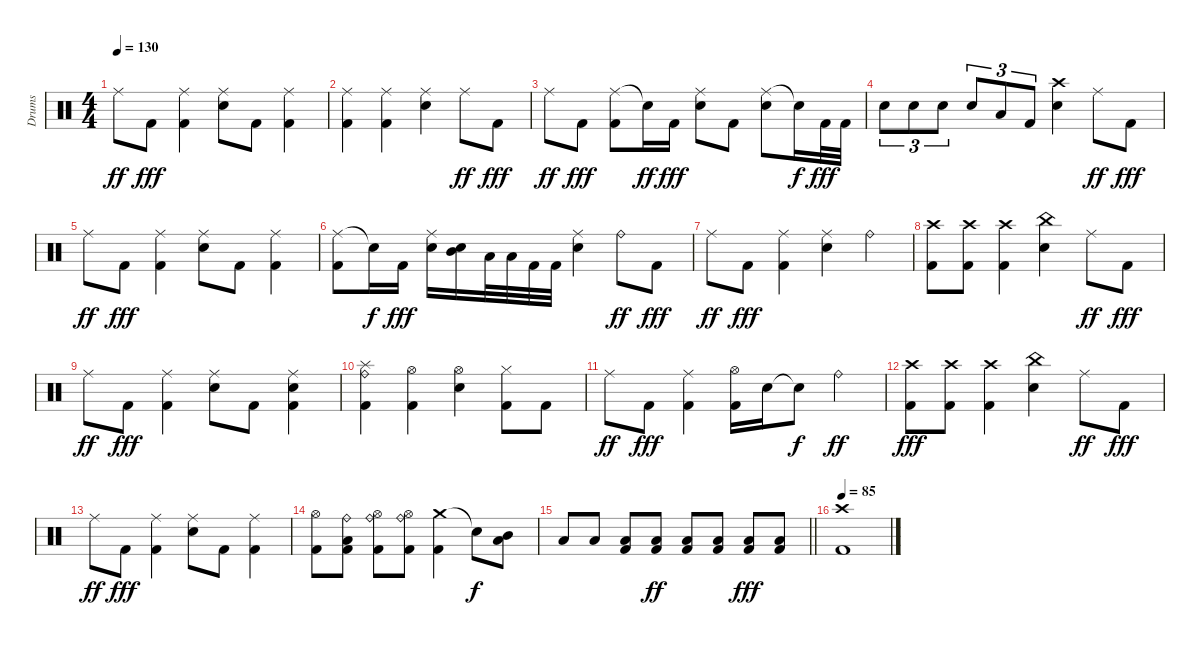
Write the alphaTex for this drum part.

\track ("Drums" "Drums") {instrument percussion}
\staff {score}
\articulation defaults
\ts (4 4)
\tempo 130
\clef neutral
\ks c "Ride (middle)".8{dy ff} "Kick (hit) 2".8{dy fff}
("Ride (middle)" "Kick (hit) 2").4 ("Ride (middle)" "Snare (hit) 2").8 "Kick (hit) 2".8 ("Ride (middle)" "Kick (hit) 2").4 |
("Ride (middle)" "Kick (hit) 2").4 ("Ride (middle)" "Kick (hit) 2").4 ("Ride (middle)" "Snare (hit) 2").4 "Ride (middle)".8{dy ff} "Kick (hit) 2".8{dy fff} |
"Ride (middle)".8{dy ff} "Kick (hit) 2".8{dy fff} ("Ride (middle)" "Kick (hit) 2").8 "Snare (hit)"{t}.16{dy ff} "Kick (hit) 2".16{dy fff} ("Ride (middle)" "Snare (hit) 2").8 "Kick (hit) 2".8 ("Ride (middle)" "Snare (hit) 2").8 "Snare (hit)"{t}.16{dy f} "Kick (hit) 2".32{dy fff} "Kick (hit) 2".32 |
"Snare (hit) 2".8{tu (3 2)} "Snare (hit) 2".8{tu (3 2)} "Snare (hit) 2".8{tu (3 2)} "Snare (hit) 2".8{tu (3 2)} "Low Tom (hit)".8{tu (3 2)} "Kick (hit) 2".8{tu (3 2)} ("Crash high (hit)" "Snare (hit) 2").4 "Ride (middle)".8{dy ff} "Kick (hit) 2".8{dy fff} |
"Ride (middle)".8{dy ff} "Kick (hit) 2".8{dy fff} ("Ride (middle)" "Kick (hit) 2").4 ("Ride (middle)" "Snare (hit) 2").8 "Kick (hit) 2".8 ("Ride (middle)" "Kick (hit) 2").4 |
("Ride (middle)" "Kick (hit) 2").8 "Snare (hit)"{t}.16{dy f} "Kick (hit) 2".16{dy fff} ("Ride (middle)" "Snare (hit) 2").16 ("Snare (hit) 2" "Mid Tom (hit)").16 "Low Tom (hit)".32 "Low Tom (hit)".32 "Kick (hit) 2".32 "Kick (hit) 2".32 ("Ride (middle)" "Snare (hit) 2").4 "Ride (bell)".8{dy ff} "Kick (hit) 2".8{dy fff} |
"Ride (middle)".8{dy ff} "Kick (hit) 2".8{dy fff} ("Ride (middle)" "Kick (hit) 2").4 ("Ride (middle)" "Snare (hit) 2").4 "Ride (bell)".4 |
("Crash high (hit)" "Kick (hit) 2").8 ("Crash high (hit)" "Kick (hit) 2").8 ("Crash high (hit)" "Kick (hit) 2").4 ("China (hit)" "Snare (hit) 2").4 "Ride (middle)".8{dy ff} "Kick (hit) 2".8{dy fff} |
"Ride (middle)".8{dy ff} "Kick (hit) 2".8{dy fff} ("Ride (middle)" "Kick (hit) 2").4 ("Ride (middle)" "Snare (hit) 2").8 "Kick (hit) 2".8 ("Ride (middle)" "Snare (hit) 2" "Kick (hit) 2").4 |
("Ride (bell)" "Splash (hit)" "Kick (hit) 2").4 ("Hi-Hat (open)" "Kick (hit) 2").4 ("Hi-Hat (open)" "Snare (hit) 2").4 ("Hi-Hat (closed)" "Kick (hit) 2").8 "Kick (hit) 2".8 |
"Ride (middle)".8{dy ff} "Kick (hit) 2".8{dy fff} ("Ride (middle)" "Kick (hit) 2").4 ("Hi-Hat (open)" "Kick (hit) 2").16 "Snare (hit) 2".16 "Snare (hit)"{t}.8{dy f} "Ride (bell)".4{dy ff} |
("Crash high (hit)" "Kick (hit) 2").8{dy fff} ("Crash high (hit)" "Kick (hit) 2").8 ("Crash high (hit)" "Kick (hit) 2").4 ("China (hit)" "Snare (hit) 2").4 "Ride (middle)".8{dy ff} "Kick (hit) 2".8{dy fff} |
"Ride (middle)".8{dy ff} "Kick (hit) 2".8{dy fff} ("Ride (middle)" "Kick (hit) 2").4 ("Ride (middle)" "Snare (hit) 2").8 "Kick (hit) 2".8 ("Ride (middle)" "Kick (hit) 2").4 |
("Hi-Hat (open)" "Kick (hit) 2").8 ("Ride (bell)" "Low Tom (hit)" "Kick (hit) 2").8 ("Ride (bell)" "Hi-Hat (open)" "Kick (hit) 2").8 ("Ride (bell)" "Hi-Hat (open)" "Kick (hit) 2").8 ("Crash medium (hit)" "Kick (hit) 2").4 "Snare (hit)"{t}.8{dy f} ("Low Tom (hit)" "Mid Tom (hit)").8 |
\barLineRight lightlight "Low Tom (hit)".8 "Low Tom (hit)".8
("Low Tom (hit)" "Kick (hit) 2").8 ("Low Tom (hit)" "Kick (hit) 2").8{dy ff} ("Low Tom (hit)" "Kick (hit) 2").8 ("Low Tom (hit)" "Kick (hit) 2").8 ("Low Tom (hit)" "Kick (hit) 2").8{dy fff} ("Low Tom (hit)" "Kick (hit) 2").8 |
\section ("" "")
\tempo 85
("Crash high (hit)" "Kick (hit) 2").1
